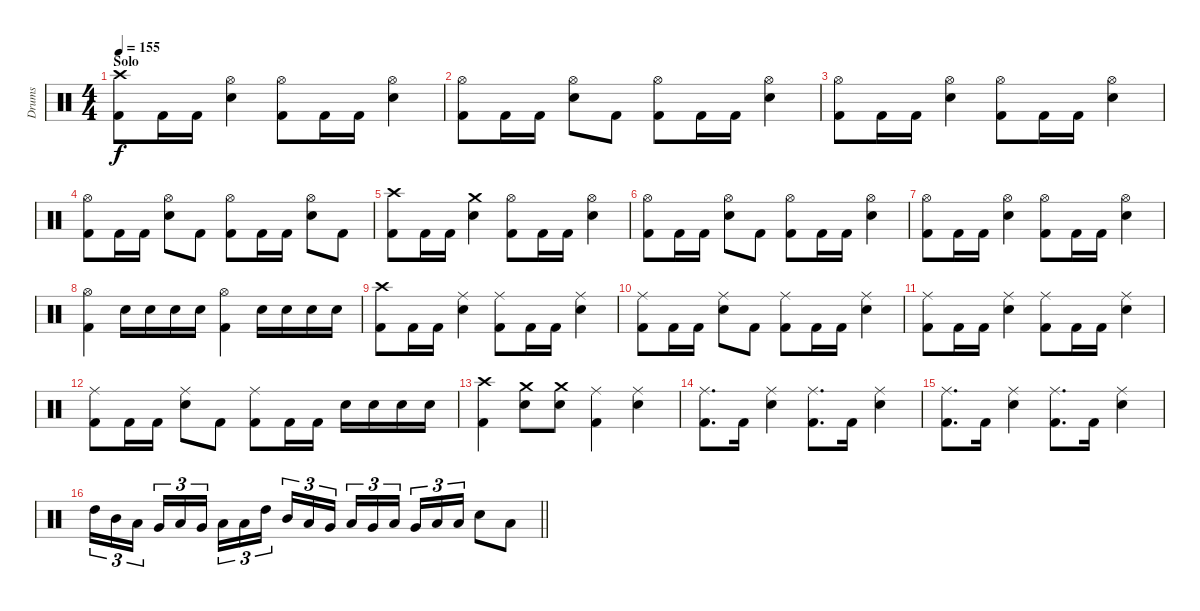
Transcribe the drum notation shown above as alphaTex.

\track ("Drums" "Drums") {instrument percussion}
\staff {score}
\articulation defaults
\ts (4 4)
\section ("" "Solo")
\tempo 155
\clef neutral
\ks c
("Crash high (hit)" "Kick (hit) 2").8{dy f} "Kick (hit) 2".16 "Kick (hit) 2".16 ("Hi-Hat (open)" "Snare (hit) 2").4 ("Hi-Hat (open)" "Kick (hit) 2").8 "Kick (hit) 2".16 "Kick (hit) 2".16 ("Hi-Hat (open)" "Snare (hit) 2").4 |
("Hi-Hat (open)" "Kick (hit) 2").8 "Kick (hit) 2".16 "Kick (hit) 2".16 ("Hi-Hat (open)" "Snare (hit) 2").8 "Kick (hit) 2".8 ("Hi-Hat (open)" "Kick (hit) 2").8 "Kick (hit) 2".16 "Kick (hit) 2".16 ("Hi-Hat (open)" "Snare (hit) 2").4 |
("Hi-Hat (open)" "Kick (hit) 2").8 "Kick (hit) 2".16 "Kick (hit) 2".16 ("Hi-Hat (open)" "Snare (hit) 2").4 ("Hi-Hat (open)" "Kick (hit) 2").8 "Kick (hit) 2".16 "Kick (hit) 2".16 ("Hi-Hat (open)" "Snare (hit) 2").4 |
("Hi-Hat (open)" "Kick (hit) 2").8 "Kick (hit) 2".16 "Kick (hit) 2".16 ("Hi-Hat (open)" "Snare (hit) 2").8 "Kick (hit) 2".8 ("Hi-Hat (open)" "Kick (hit) 2").8 "Kick (hit) 2".16 "Kick (hit) 2".16 ("Hi-Hat (open)" "Snare (hit) 2").8 "Kick (hit) 2".8 |
("Crash high (hit)" "Kick (hit) 2").8 "Kick (hit) 2".16 "Kick (hit) 2".16 ("Crash medium (hit)" "Snare (hit) 2").4 ("Hi-Hat (open)" "Kick (hit) 2").8 "Kick (hit) 2".16 "Kick (hit) 2".16 ("Hi-Hat (open)" "Snare (hit) 2").4 |
("Hi-Hat (open)" "Kick (hit) 2").8 "Kick (hit) 2".16 "Kick (hit) 2".16 ("Hi-Hat (open)" "Snare (hit) 2").8 "Kick (hit) 2".8 ("Hi-Hat (open)" "Kick (hit) 2").8 "Kick (hit) 2".16 "Kick (hit) 2".16 ("Hi-Hat (open)" "Snare (hit) 2").4 |
("Hi-Hat (open)" "Kick (hit) 2").8 "Kick (hit) 2".16 "Kick (hit) 2".16 ("Hi-Hat (open)" "Snare (hit) 2").4 ("Hi-Hat (open)" "Kick (hit) 2").8 "Kick (hit) 2".16 "Kick (hit) 2".16 ("Hi-Hat (open)" "Snare (hit) 2").4 |
("Hi-Hat (open)" "Kick (hit) 2").4 "Snare (hit) 2".16 "Snare (hit) 2".16 "Snare (hit) 2".16 "Snare (hit) 2".16 ("Hi-Hat (open)" "Kick (hit) 2").4 "Snare (hit) 2".16 "Snare (hit) 2".16 "Snare (hit) 2".16 "Snare (hit) 2".16 |
("Crash high (hit)" "Kick (hit) 2").8 "Kick (hit) 2".16 "Kick (hit) 2".16 ("Ride (middle)" "Snare (hit) 2").4 ("Ride (middle)" "Kick (hit) 2").8 "Kick (hit) 2".16 "Kick (hit) 2".16 ("Ride (middle)" "Snare (hit) 2").4 |
("Ride (middle)" "Kick (hit) 2").8 "Kick (hit) 2".16 "Kick (hit) 2".16 ("Ride (middle)" "Snare (hit) 2").8 "Kick (hit) 2".8 ("Ride (middle)" "Kick (hit) 2").8 "Kick (hit) 2".16 "Kick (hit) 2".16 ("Ride (middle)" "Snare (hit) 2").4 |
("Ride (middle)" "Kick (hit) 2").8 "Kick (hit) 2".16 "Kick (hit) 2".16 ("Ride (middle)" "Snare (hit) 2").4 ("Ride (middle)" "Kick (hit) 2").8 "Kick (hit) 2".16 "Kick (hit) 2".16 ("Ride (middle)" "Snare (hit) 2").4 |
("Ride (middle)" "Kick (hit) 2").8 "Kick (hit) 2".16 "Kick (hit) 2".16 ("Ride (middle)" "Snare (hit) 2").8 "Kick (hit) 2".8 ("Ride (middle)" "Kick (hit) 2").8 "Kick (hit) 2".16 "Kick (hit) 2".16 "Snare (hit) 2".16 "Snare (hit) 2".16 "Snare (hit) 2".16 "Snare (hit) 2".16 |
("Crash high (hit)" "Kick (hit) 2").4 ("Crash medium (hit)" "Snare (hit) 2").8 ("Crash medium (hit)" "Snare (hit) 2").8 ("Ride (middle)" "Kick (hit) 2").4 ("Ride (middle)" "Snare (hit) 2").4 |
("Ride (middle)" "Kick (hit) 2").8{d} "Kick (hit) 2".16 ("Ride (middle)" "Snare (hit) 2").4 ("Ride (middle)" "Kick (hit) 2").8{d} "Kick (hit) 2".16 ("Ride (middle)" "Snare (hit) 2").4 |
("Ride (middle)" "Kick (hit) 2").8{d} "Kick (hit) 2".16 ("Ride (middle)" "Snare (hit) 2").4 ("Ride (middle)" "Kick (hit) 2").8{d} "Kick (hit) 2".16 ("Ride (middle)" "Snare (hit) 2").4 |
\barLineRight lightlight "High Tom (hit)".16{tu (3 2)} "Mid Tom (hit)".16{tu (3 2)} "Low Tom (hit)".16{tu (3 2) beam splitsecondary} "Very Low Tom (hit)".16{tu (3 2)} "Low Tom (hit)".16{tu (3 2)} "Very Low Tom (hit)".16{tu (3 2)} "Low Floor Tom (hit)".16{tu (3 2)} "Low Tom (hit)".16{tu (3 2)} "High Tom (hit)".16{tu (3 2) beam splitsecondary} "Mid Tom (hit)".16{tu (3 2)} "Low Tom (hit)".16{tu (3 2)} "Very Low Tom (hit)".16{tu (3 2)} "Low Floor Tom (hit)".16{tu (3 2)} "Very Low Tom (hit)".16{tu (3 2)} "Low Tom (hit)".16{tu (3 2) beam splitsecondary} "Very Low Tom (hit)".16{tu (3 2)} "Low Floor Tom (hit)".16{tu (3 2)} "Low Floor Tom (hit)".16{tu (3 2)} "Snare (hit) 2".8 "Low Tom (hit)".8
